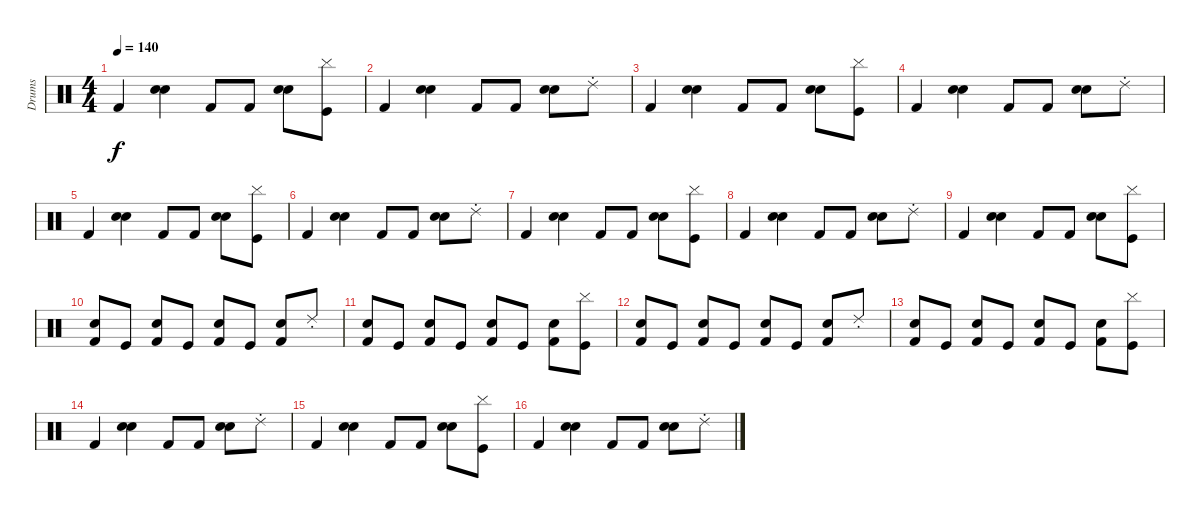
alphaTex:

\track ("Drums" "Drums") {instrument percussion}
\staff {score}
\articulation defaults
\ts (4 4)
\tempo 140
\clef neutral
\ks c "Kick (hit) 2".4{dy f}
("Hand Clap (hit)" "Electric Snare (hit)").4 "Kick (hit) 2".8 "Kick (hit) 2".8 ("Hand Clap (hit)" "Electric Snare (hit)").8 ("Kick (hit)" "Cymbal (hit)").8 |
"Kick (hit) 2".4 ("Hand Clap (hit)" "Electric Snare (hit)").4 "Kick (hit) 2".8 "Kick (hit) 2".8 ("Hand Clap (hit)" "Electric Snare (hit)").8 "Ride (choke) 2".8 |
"Kick (hit) 2".4 ("Hand Clap (hit)" "Electric Snare (hit)").4 "Kick (hit) 2".8 "Kick (hit) 2".8 ("Hand Clap (hit)" "Electric Snare (hit)").8 ("Kick (hit)" "Cymbal (hit)").8 |
"Kick (hit) 2".4 ("Hand Clap (hit)" "Electric Snare (hit)").4 "Kick (hit) 2".8 "Kick (hit) 2".8 ("Hand Clap (hit)" "Electric Snare (hit)").8 "Ride (choke) 2".8 |
"Kick (hit) 2".4 ("Hand Clap (hit)" "Electric Snare (hit)").4 "Kick (hit) 2".8 "Kick (hit) 2".8 ("Hand Clap (hit)" "Electric Snare (hit)").8 ("Kick (hit)" "Cymbal (hit)").8 |
"Kick (hit) 2".4 ("Hand Clap (hit)" "Electric Snare (hit)").4 "Kick (hit) 2".8 "Kick (hit) 2".8 ("Hand Clap (hit)" "Electric Snare (hit)").8 "Ride (choke) 2".8 |
"Kick (hit) 2".4 ("Hand Clap (hit)" "Electric Snare (hit)").4 "Kick (hit) 2".8 "Kick (hit) 2".8 ("Hand Clap (hit)" "Electric Snare (hit)").8 ("Kick (hit)" "Cymbal (hit)").8 |
"Kick (hit) 2".4 ("Hand Clap (hit)" "Electric Snare (hit)").4 "Kick (hit) 2".8 "Kick (hit) 2".8 ("Hand Clap (hit)" "Electric Snare (hit)").8 "Ride (choke) 2".8 |
"Kick (hit) 2".4 ("Hand Clap (hit)" "Electric Snare (hit)").4 "Kick (hit) 2".8 "Kick (hit) 2".8 ("Hand Clap (hit)" "Electric Snare (hit)").8 ("Kick (hit)" "Cymbal (hit)").8 |
("Kick (hit) 2" "Hand Clap (hit)").8 "Kick (hit)".8 ("Kick (hit) 2" "Hand Clap (hit)").8 "Kick (hit)".8 ("Kick (hit) 2" "Hand Clap (hit)").8 "Kick (hit)".8 ("Kick (hit) 2" "Hand Clap (hit)").8 "Ride (choke) 2".8 |
("Kick (hit) 2" "Hand Clap (hit)").8 "Kick (hit)".8 ("Kick (hit) 2" "Hand Clap (hit)").8 "Kick (hit)".8 ("Kick (hit) 2" "Hand Clap (hit)").8 "Kick (hit)".8 ("Kick (hit) 2" "Hand Clap (hit)").8 ("Kick (hit)" "Cymbal (hit)").8 |
("Kick (hit) 2" "Hand Clap (hit)").8 "Kick (hit)".8 ("Kick (hit) 2" "Hand Clap (hit)").8 "Kick (hit)".8 ("Kick (hit) 2" "Hand Clap (hit)").8 "Kick (hit)".8 ("Kick (hit) 2" "Hand Clap (hit)").8 "Ride (choke) 2".8 |
("Kick (hit) 2" "Hand Clap (hit)").8 "Kick (hit)".8 ("Kick (hit) 2" "Hand Clap (hit)").8 "Kick (hit)".8 ("Kick (hit) 2" "Hand Clap (hit)").8 "Kick (hit)".8 ("Kick (hit) 2" "Hand Clap (hit)").8 ("Kick (hit)" "Cymbal (hit)").8 |
"Kick (hit) 2".4 ("Hand Clap (hit)" "Electric Snare (hit)").4 "Kick (hit) 2".8 "Kick (hit) 2".8 ("Hand Clap (hit)" "Electric Snare (hit)").8 "Ride (choke) 2".8 |
"Kick (hit) 2".4 ("Hand Clap (hit)" "Electric Snare (hit)").4 "Kick (hit) 2".8 "Kick (hit) 2".8 ("Hand Clap (hit)" "Electric Snare (hit)").8 ("Kick (hit)" "Cymbal (hit)").8 |
"Kick (hit) 2".4 ("Hand Clap (hit)" "Electric Snare (hit)").4 "Kick (hit) 2".8 "Kick (hit) 2".8 ("Hand Clap (hit)" "Electric Snare (hit)").8 "Ride (choke) 2".8
